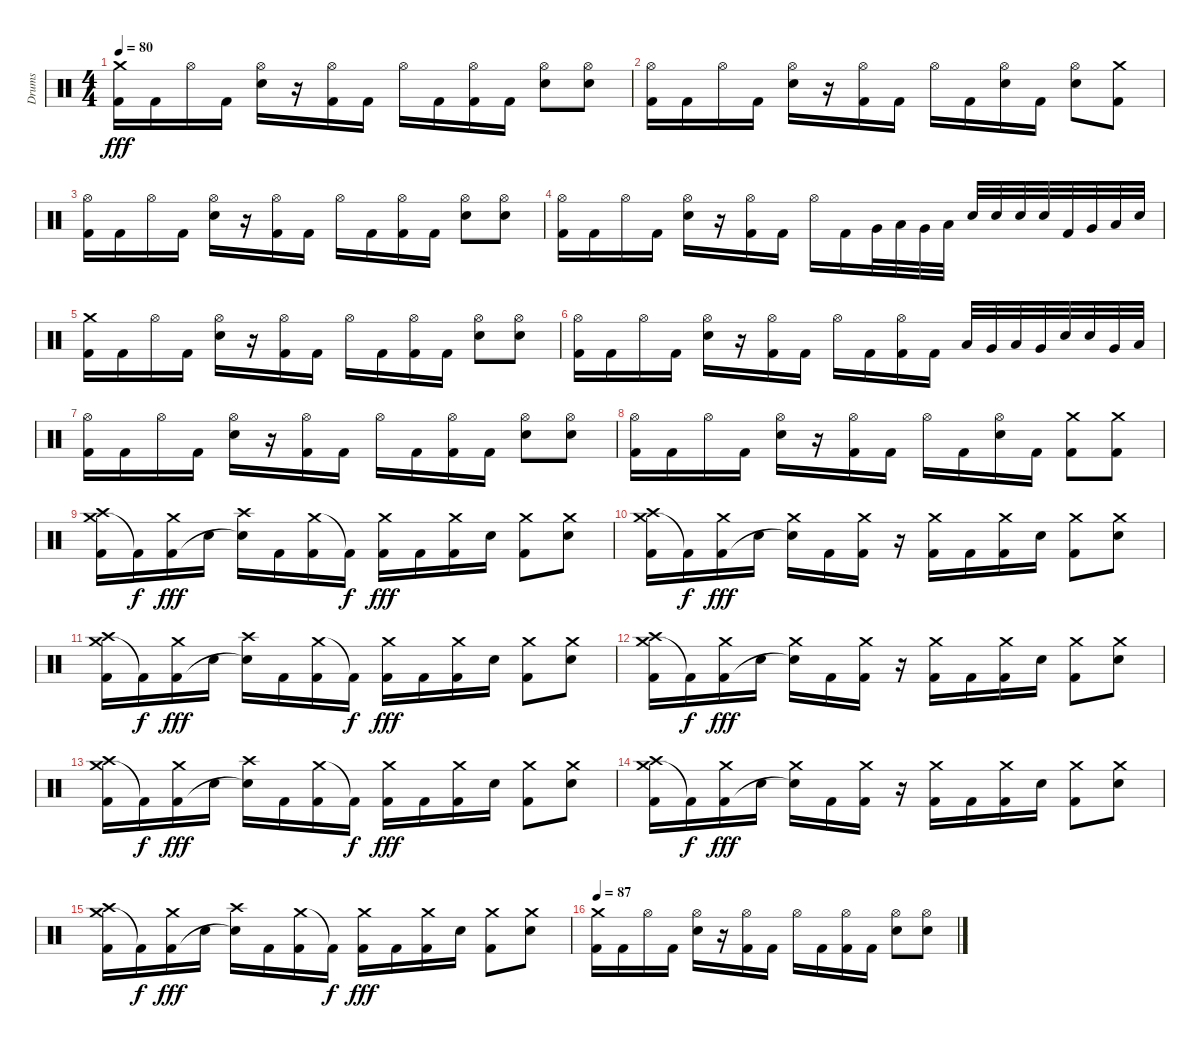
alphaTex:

\track ("Drums" "Drums") {instrument percussion}
\staff {score}
\articulation defaults
\ts (4 4)
\tempo 80
\clef neutral
\ks c
("Crash medium (hit)" "Kick (hit) 2").16{dy fff} "Kick (hit) 2".16 "Hi-Hat (open)".16 "Kick (hit) 2".16 ("Hi-Hat (open)" "Electric Snare (hit)").16 r.16 ("Hi-Hat (open)" "Kick (hit) 2").16 "Kick (hit) 2".16 "Hi-Hat (open)".16 "Kick (hit) 2".16 ("Hi-Hat (open)" "Kick (hit) 2").16 "Kick (hit) 2".16 ("Hi-Hat (open)" "Electric Snare (hit)").8 ("Hi-Hat (open)" "Electric Snare (hit)").8 |
("Hi-Hat (open)" "Kick (hit) 2").16 "Kick (hit) 2".16 "Hi-Hat (open)".16 "Kick (hit) 2".16 ("Hi-Hat (open)" "Electric Snare (hit)").16 r.16 ("Hi-Hat (open)" "Kick (hit) 2").16 "Kick (hit) 2".16 "Hi-Hat (open)".16 "Kick (hit) 2".16 ("Hi-Hat (open)" "Electric Snare (hit)").16 "Kick (hit) 2".16 ("Hi-Hat (open)" "Electric Snare (hit)").8 ("Crash medium (hit)" "Kick (hit) 2").8 |
("Hi-Hat (open)" "Kick (hit) 2").16 "Kick (hit) 2".16 "Hi-Hat (open)".16 "Kick (hit) 2".16 ("Hi-Hat (open)" "Electric Snare (hit)").16 r.16 ("Hi-Hat (open)" "Kick (hit) 2").16 "Kick (hit) 2".16 "Hi-Hat (open)".16 "Kick (hit) 2".16 ("Hi-Hat (open)" "Kick (hit) 2").16 "Kick (hit) 2".16 ("Hi-Hat (open)" "Electric Snare (hit)").8 ("Hi-Hat (open)" "Electric Snare (hit)").8 |
("Hi-Hat (open)" "Kick (hit) 2").16 "Kick (hit) 2".16 "Hi-Hat (open)".16 "Kick (hit) 2".16 ("Hi-Hat (open)" "Electric Snare (hit)").16 r.16 ("Hi-Hat (open)" "Kick (hit) 2").16 "Kick (hit) 2".16 "Hi-Hat (open)".16 "Kick (hit) 2".16 "Very Low Tom (hit)".32 "Low Floor Tom (hit)".32 "Very Low Tom (hit)".32 "Low Floor Tom (hit)".32 "Electric Snare (hit)".32 "Electric Snare (hit)".32 "Electric Snare (hit)".32 "Electric Snare (hit)".32 "Kick (hit) 2".32 "Very Low Tom (hit)".32 "Low Floor Tom (hit)".32 "Electric Snare (hit)".32 |
("Crash medium (hit)" "Kick (hit) 2").16 "Kick (hit) 2".16 "Hi-Hat (open)".16 "Kick (hit) 2".16 ("Hi-Hat (open)" "Electric Snare (hit)").16 r.16 ("Hi-Hat (open)" "Kick (hit) 2").16 "Kick (hit) 2".16 "Hi-Hat (open)".16 "Kick (hit) 2".16 ("Hi-Hat (open)" "Kick (hit) 2").16 "Kick (hit) 2".16 ("Hi-Hat (open)" "Electric Snare (hit)").8 ("Hi-Hat (open)" "Electric Snare (hit)").8 |
("Hi-Hat (open)" "Kick (hit) 2").16 "Kick (hit) 2".16 "Hi-Hat (open)".16 "Kick (hit) 2".16 ("Hi-Hat (open)" "Electric Snare (hit)").16 r.16 ("Hi-Hat (open)" "Kick (hit) 2").16 "Kick (hit) 2".16 "Hi-Hat (open)".16 "Kick (hit) 2".16 ("Hi-Hat (open)" "Kick (hit) 2").16 "Kick (hit) 2".16 "Low Tom (hit)".32 "Very Low Tom (hit)".32 "Low Floor Tom (hit)".32 "Very Low Tom (hit)".32 "Electric Snare (hit)".32 "Electric Snare (hit)".32 "Very Low Tom (hit)".32 "Low Floor Tom (hit)".32 |
("Hi-Hat (open)" "Kick (hit) 2").16 "Kick (hit) 2".16 "Hi-Hat (open)".16 "Kick (hit) 2".16 ("Hi-Hat (open)" "Electric Snare (hit)").16 r.16 ("Hi-Hat (open)" "Kick (hit) 2").16 "Kick (hit) 2".16 "Hi-Hat (open)".16 "Kick (hit) 2".16 ("Hi-Hat (open)" "Kick (hit) 2").16 "Kick (hit) 2".16 ("Hi-Hat (open)" "Electric Snare (hit)").8 ("Hi-Hat (open)" "Electric Snare (hit)").8 |
("Hi-Hat (open)" "Kick (hit) 2").16 "Kick (hit) 2".16 "Hi-Hat (open)".16 "Kick (hit) 2".16 ("Hi-Hat (open)" "Electric Snare (hit)").16 r.16 ("Hi-Hat (open)" "Kick (hit) 2").16 "Kick (hit) 2".16 "Hi-Hat (open)".16 "Kick (hit) 2".16 ("Hi-Hat (open)" "Electric Snare (hit)").16 "Kick (hit) 2".16 ("Crash medium (hit)" "Kick (hit) 2").8 ("Crash medium (hit)" "Kick (hit) 2").8 |
("Crash medium (hit)" "Crash high (hit)" "Kick (hit) 2").16 "Kick (hit) 2"{t}.16{dy f} ("Crash medium (hit)" "Kick (hit) 2").16{dy fff} "Electric Snare (hit)".16 ("Crash high (hit)" "Electric Snare (hit)"{t}).16 "Kick (hit) 2".16 ("Crash medium (hit)" "Kick (hit) 2").16 "Kick (hit) 2"{t}.16{dy f} ("Crash medium (hit)" "Kick (hit) 2").16{dy fff} "Kick (hit) 2".16 ("Crash medium (hit)" "Kick (hit) 2").16 "Electric Snare (hit)".16 ("Crash medium (hit)" "Kick (hit) 2").8 ("Crash medium (hit)" "Electric Snare (hit)").8 |
("Crash medium (hit)" "Crash high (hit)" "Kick (hit) 2").16 "Kick (hit) 2"{t}.16{dy f} ("Crash medium (hit)" "Kick (hit) 2").16{dy fff} "Electric Snare (hit)".16 ("Crash medium (hit)" "Electric Snare (hit)"{t}).16 "Kick (hit) 2".16 ("Crash medium (hit)" "Kick (hit) 2").16 r.16 ("Crash medium (hit)" "Kick (hit) 2").16 "Kick (hit) 2".16 ("Crash medium (hit)" "Kick (hit) 2").16 "Electric Snare (hit)".16 ("Crash medium (hit)" "Kick (hit) 2").8 ("Crash medium (hit)" "Electric Snare (hit)").8 |
("Crash medium (hit)" "Crash high (hit)" "Kick (hit) 2").16 "Kick (hit) 2"{t}.16{dy f} ("Crash medium (hit)" "Kick (hit) 2").16{dy fff} "Electric Snare (hit)".16 ("Crash high (hit)" "Electric Snare (hit)"{t}).16 "Kick (hit) 2".16 ("Crash medium (hit)" "Kick (hit) 2").16 "Kick (hit) 2"{t}.16{dy f} ("Crash medium (hit)" "Kick (hit) 2").16{dy fff} "Kick (hit) 2".16 ("Crash medium (hit)" "Kick (hit) 2").16 "Electric Snare (hit)".16 ("Crash medium (hit)" "Kick (hit) 2").8 ("Crash medium (hit)" "Electric Snare (hit)").8 |
("Crash medium (hit)" "Crash high (hit)" "Kick (hit) 2").16 "Kick (hit) 2"{t}.16{dy f} ("Crash medium (hit)" "Kick (hit) 2").16{dy fff} "Electric Snare (hit)".16 ("Crash medium (hit)" "Electric Snare (hit)"{t}).16 "Kick (hit) 2".16 ("Crash medium (hit)" "Kick (hit) 2").16 r.16 ("Crash medium (hit)" "Kick (hit) 2").16 "Kick (hit) 2".16 ("Crash medium (hit)" "Kick (hit) 2").16 "Electric Snare (hit)".16 ("Crash medium (hit)" "Kick (hit) 2").8 ("Crash medium (hit)" "Electric Snare (hit)").8 |
("Crash medium (hit)" "Crash high (hit)" "Kick (hit) 2").16 "Kick (hit) 2"{t}.16{dy f} ("Crash medium (hit)" "Kick (hit) 2").16{dy fff} "Electric Snare (hit)".16 ("Crash high (hit)" "Electric Snare (hit)"{t}).16 "Kick (hit) 2".16 ("Crash medium (hit)" "Kick (hit) 2").16 "Kick (hit) 2"{t}.16{dy f} ("Crash medium (hit)" "Kick (hit) 2").16{dy fff} "Kick (hit) 2".16 ("Crash medium (hit)" "Kick (hit) 2").16 "Electric Snare (hit)".16 ("Crash medium (hit)" "Kick (hit) 2").8 ("Crash medium (hit)" "Electric Snare (hit)").8 |
("Crash medium (hit)" "Crash high (hit)" "Kick (hit) 2").16 "Kick (hit) 2"{t}.16{dy f} ("Crash medium (hit)" "Kick (hit) 2").16{dy fff} "Electric Snare (hit)".16 ("Crash medium (hit)" "Electric Snare (hit)"{t}).16 "Kick (hit) 2".16 ("Crash medium (hit)" "Kick (hit) 2").16 r.16 ("Crash medium (hit)" "Kick (hit) 2").16 "Kick (hit) 2".16 ("Crash medium (hit)" "Kick (hit) 2").16 "Electric Snare (hit)".16 ("Crash medium (hit)" "Kick (hit) 2").8 ("Crash medium (hit)" "Electric Snare (hit)").8 |
("Crash medium (hit)" "Crash high (hit)" "Kick (hit) 2").16 "Kick (hit) 2"{t}.16{dy f} ("Crash medium (hit)" "Kick (hit) 2").16{dy fff} "Electric Snare (hit)".16 ("Crash high (hit)" "Electric Snare (hit)"{t}).16 "Kick (hit) 2".16 ("Crash medium (hit)" "Kick (hit) 2").16 "Kick (hit) 2"{t}.16{dy f} ("Crash medium (hit)" "Kick (hit) 2").16{dy fff} "Kick (hit) 2".16 ("Crash medium (hit)" "Kick (hit) 2").16 "Electric Snare (hit)".16 ("Crash medium (hit)" "Kick (hit) 2").8 ("Crash medium (hit)" "Electric Snare (hit)").8 |
\tempo 87
("Crash medium (hit)" "Kick (hit) 2").16 "Kick (hit) 2".16 "Hi-Hat (open)".16 "Kick (hit) 2".16 ("Hi-Hat (open)" "Electric Snare (hit)").16 r.16 ("Hi-Hat (open)" "Kick (hit) 2").16 "Kick (hit) 2".16 "Hi-Hat (open)".16 "Kick (hit) 2".16 ("Hi-Hat (open)" "Kick (hit) 2").16 "Kick (hit) 2".16 ("Hi-Hat (open)" "Electric Snare (hit)").8 ("Hi-Hat (open)" "Electric Snare (hit)").8
